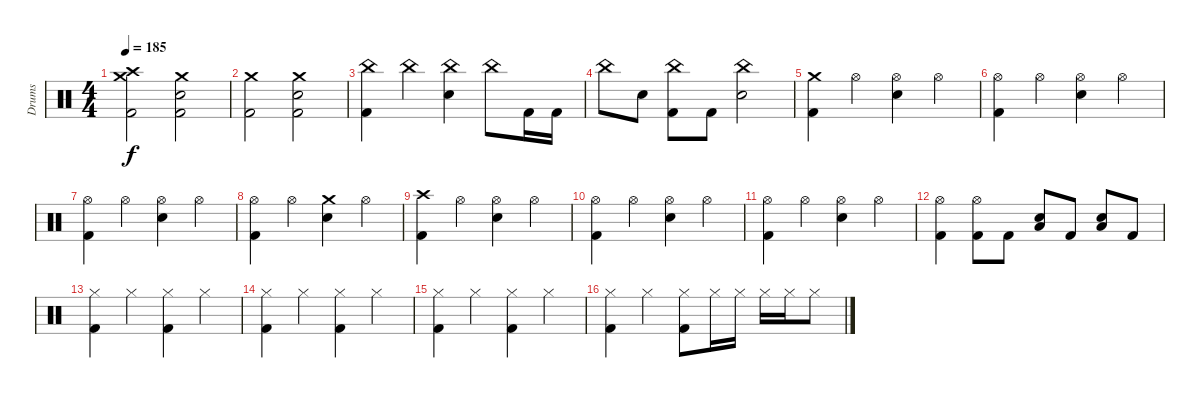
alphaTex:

\track ("Drums" "Drums") {instrument percussion}
\staff {score}
\articulation defaults
\ts (4 4)
\tempo 185
\clef neutral
\ks c
("Crash high (hit)" "Crash medium (hit)" "Kick (hit) 2").2{dy f} ("Crash medium (hit)" "Electric Snare (hit)" "Kick (hit) 2").2 |
("Crash medium (hit)" "Kick (hit) 2").2 ("Crash medium (hit)" "Electric Snare (hit)" "Kick (hit) 2").2 |
("China (hit)" "Kick (hit) 2").4 "China (hit)".4 ("China (hit)" "Electric Snare (hit)").4 "China (hit)".8 "Kick (hit) 2".16 "Kick (hit) 2".16 |
"China (hit)".8 "Electric Snare (hit)".8 ("China (hit)" "Kick (hit) 2").8 "Kick (hit) 2".8 ("China (hit)" "Electric Snare (hit)").2 |
("Crash medium (hit)" "Kick (hit) 2").4 "Hi-Hat (open)".4 ("Hi-Hat (open)" "Electric Snare (hit)").4 "Hi-Hat (open)".4 |
("Hi-Hat (open)" "Kick (hit) 2").4 "Hi-Hat (open)".4 ("Hi-Hat (open)" "Electric Snare (hit)").4 "Hi-Hat (open)".4 |
("Hi-Hat (open)" "Kick (hit) 2").4 "Hi-Hat (open)".4 ("Hi-Hat (open)" "Electric Snare (hit)").4 "Hi-Hat (open)".4 |
("Hi-Hat (open)" "Kick (hit) 2").4 "Hi-Hat (open)".4 ("Crash medium (hit)" "Electric Snare (hit)").4 "Hi-Hat (open)".4 |
("Crash high (hit)" "Kick (hit) 2").4 "Hi-Hat (open)".4 ("Hi-Hat (open)" "Electric Snare (hit)").4 "Hi-Hat (open)".4 |
("Hi-Hat (open)" "Kick (hit) 2").4 "Hi-Hat (open)".4 ("Hi-Hat (open)" "Electric Snare (hit)").4 "Hi-Hat (open)".4 |
("Hi-Hat (open)" "Kick (hit) 2").4 "Hi-Hat (open)".4 ("Hi-Hat (open)" "Electric Snare (hit)").4 "Hi-Hat (open)".4 |
("Hi-Hat (open)" "Kick (hit) 2").4 ("Hi-Hat (open)" "Kick (hit) 2").8 "Kick (hit) 2".8 ("Electric Snare (hit)" "Low Floor Tom (hit)").8 "Kick (hit) 2".8 ("Electric Snare (hit)" "Low Floor Tom (hit)").8 "Kick (hit) 2".8 |
("Hi-Hat (closed)" "Kick (hit) 2").4 "Hi-Hat (closed)".4 ("Hi-Hat (closed)" "Kick (hit) 2").4 "Hi-Hat (closed)".4 |
("Hi-Hat (closed)" "Kick (hit) 2").4 "Hi-Hat (closed)".4 ("Hi-Hat (closed)" "Kick (hit) 2").4 "Hi-Hat (closed)".4 |
("Hi-Hat (closed)" "Kick (hit) 2").4 "Hi-Hat (closed)".4 ("Hi-Hat (closed)" "Kick (hit) 2").4 "Hi-Hat (closed)".4 |
("Hi-Hat (closed)" "Kick (hit) 2").4 "Hi-Hat (closed)".4 ("Hi-Hat (closed)" "Kick (hit) 2").8 "Hi-Hat (closed)".16 "Hi-Hat (closed)".16 "Hi-Hat (closed)".16 "Hi-Hat (closed)".16 "Hi-Hat (closed)".8
